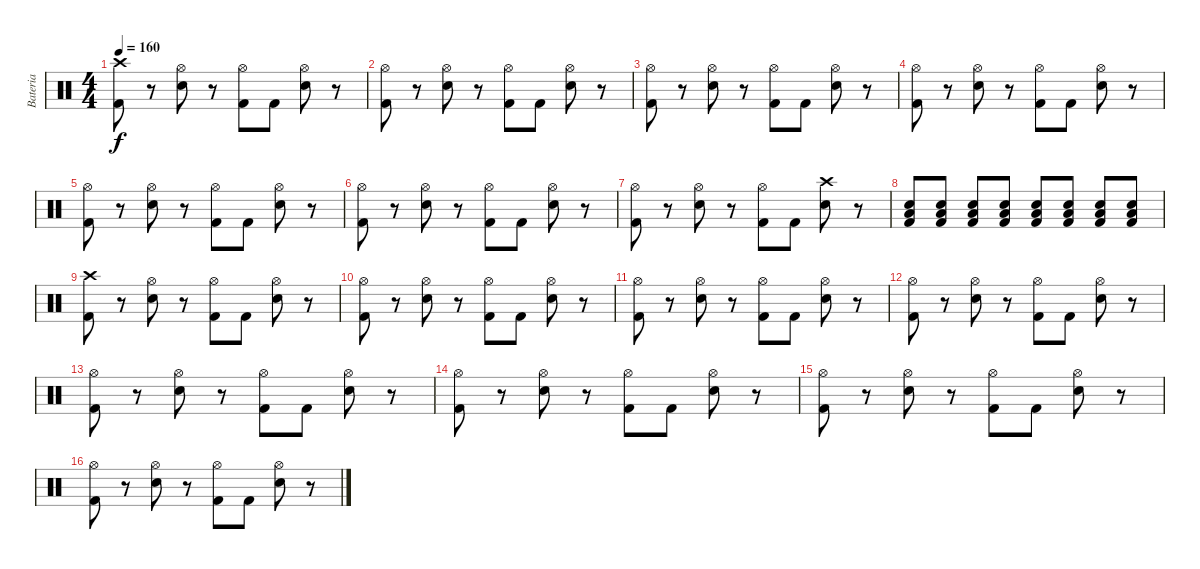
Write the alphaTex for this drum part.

\track ("Bateria" "Bateria") {instrument percussion}
\staff {score}
\articulation defaults
\ts (4 4)
\tempo 160
\clef neutral
\ks c
("Crash high (hit)" "Kick (hit) 2").8{dy f} r.8 ("Hi-Hat (open)" "Electric Snare (hit)").8 r.8 ("Hi-Hat (open)" "Kick (hit) 2").8 "Kick (hit) 2".8 ("Hi-Hat (open)" "Electric Snare (hit)").8 r.8 |
("Hi-Hat (open)" "Kick (hit) 2").8 r.8 ("Hi-Hat (open)" "Electric Snare (hit)").8 r.8 ("Hi-Hat (open)" "Kick (hit) 2").8 "Kick (hit) 2".8 ("Hi-Hat (open)" "Electric Snare (hit)").8 r.8 |
("Hi-Hat (open)" "Kick (hit) 2").8 r.8 ("Hi-Hat (open)" "Electric Snare (hit)").8 r.8 ("Hi-Hat (open)" "Kick (hit) 2").8 "Kick (hit) 2".8 ("Hi-Hat (open)" "Electric Snare (hit)").8 r.8 |
("Hi-Hat (open)" "Kick (hit) 2").8 r.8 ("Hi-Hat (open)" "Electric Snare (hit)").8 r.8 ("Hi-Hat (open)" "Kick (hit) 2").8 "Kick (hit) 2".8 ("Hi-Hat (open)" "Electric Snare (hit)").8 r.8 |
("Hi-Hat (open)" "Kick (hit) 2").8 r.8 ("Hi-Hat (open)" "Electric Snare (hit)").8 r.8 ("Hi-Hat (open)" "Kick (hit) 2").8 "Kick (hit) 2".8 ("Hi-Hat (open)" "Electric Snare (hit)").8 r.8 |
("Hi-Hat (open)" "Kick (hit) 2").8 r.8 ("Hi-Hat (open)" "Electric Snare (hit)").8 r.8 ("Hi-Hat (open)" "Kick (hit) 2").8 "Kick (hit) 2".8 ("Hi-Hat (open)" "Electric Snare (hit)").8 r.8 |
("Hi-Hat (open)" "Kick (hit) 2").8 r.8 ("Hi-Hat (open)" "Electric Snare (hit)").8 r.8 ("Hi-Hat (open)" "Kick (hit) 2").8 "Kick (hit) 2".8 ("Crash high (hit)" "Electric Snare (hit)").8 r.8 |
("Low Floor Tom (hit)" "Electric Snare (hit)" "Kick (hit) 2").8 ("Low Floor Tom (hit)" "Electric Snare (hit)" "Kick (hit) 2").8 ("Low Floor Tom (hit)" "Electric Snare (hit)" "Kick (hit) 2").8 ("Low Floor Tom (hit)" "Electric Snare (hit)" "Kick (hit) 2").8 ("Low Floor Tom (hit)" "Electric Snare (hit)" "Kick (hit) 2").8 ("Low Floor Tom (hit)" "Electric Snare (hit)" "Kick (hit) 2").8 ("Low Floor Tom (hit)" "Electric Snare (hit)" "Kick (hit) 2").8 ("Low Floor Tom (hit)" "Electric Snare (hit)" "Kick (hit) 2").8 |
("Crash high (hit)" "Kick (hit) 2").8 r.8 ("Hi-Hat (open)" "Electric Snare (hit)").8 r.8 ("Hi-Hat (open)" "Kick (hit) 2").8 "Kick (hit) 2".8 ("Hi-Hat (open)" "Electric Snare (hit)").8 r.8 |
("Hi-Hat (open)" "Kick (hit) 2").8 r.8 ("Hi-Hat (open)" "Electric Snare (hit)").8 r.8 ("Hi-Hat (open)" "Kick (hit) 2").8 "Kick (hit) 2".8 ("Hi-Hat (open)" "Electric Snare (hit)").8 r.8 |
("Hi-Hat (open)" "Kick (hit) 2").8 r.8 ("Hi-Hat (open)" "Electric Snare (hit)").8 r.8 ("Hi-Hat (open)" "Kick (hit) 2").8 "Kick (hit) 2".8 ("Hi-Hat (open)" "Electric Snare (hit)").8 r.8 |
("Hi-Hat (open)" "Kick (hit) 2").8 r.8 ("Hi-Hat (open)" "Electric Snare (hit)").8 r.8 ("Hi-Hat (open)" "Kick (hit) 2").8 "Kick (hit) 2".8 ("Hi-Hat (open)" "Electric Snare (hit)").8 r.8 |
("Hi-Hat (open)" "Kick (hit) 2").8 r.8 ("Hi-Hat (open)" "Electric Snare (hit)").8 r.8 ("Hi-Hat (open)" "Kick (hit) 2").8 "Kick (hit) 2".8 ("Hi-Hat (open)" "Electric Snare (hit)").8 r.8 |
("Hi-Hat (open)" "Kick (hit) 2").8 r.8 ("Hi-Hat (open)" "Electric Snare (hit)").8 r.8 ("Hi-Hat (open)" "Kick (hit) 2").8 "Kick (hit) 2".8 ("Hi-Hat (open)" "Electric Snare (hit)").8 r.8 |
("Hi-Hat (open)" "Kick (hit) 2").8 r.8 ("Hi-Hat (open)" "Electric Snare (hit)").8 r.8 ("Hi-Hat (open)" "Kick (hit) 2").8 "Kick (hit) 2".8 ("Hi-Hat (open)" "Electric Snare (hit)").8 r.8 |
("Hi-Hat (open)" "Kick (hit) 2").8 r.8 ("Hi-Hat (open)" "Electric Snare (hit)").8 r.8 ("Hi-Hat (open)" "Kick (hit) 2").8 "Kick (hit) 2".8 ("Hi-Hat (open)" "Electric Snare (hit)").8 r.8
